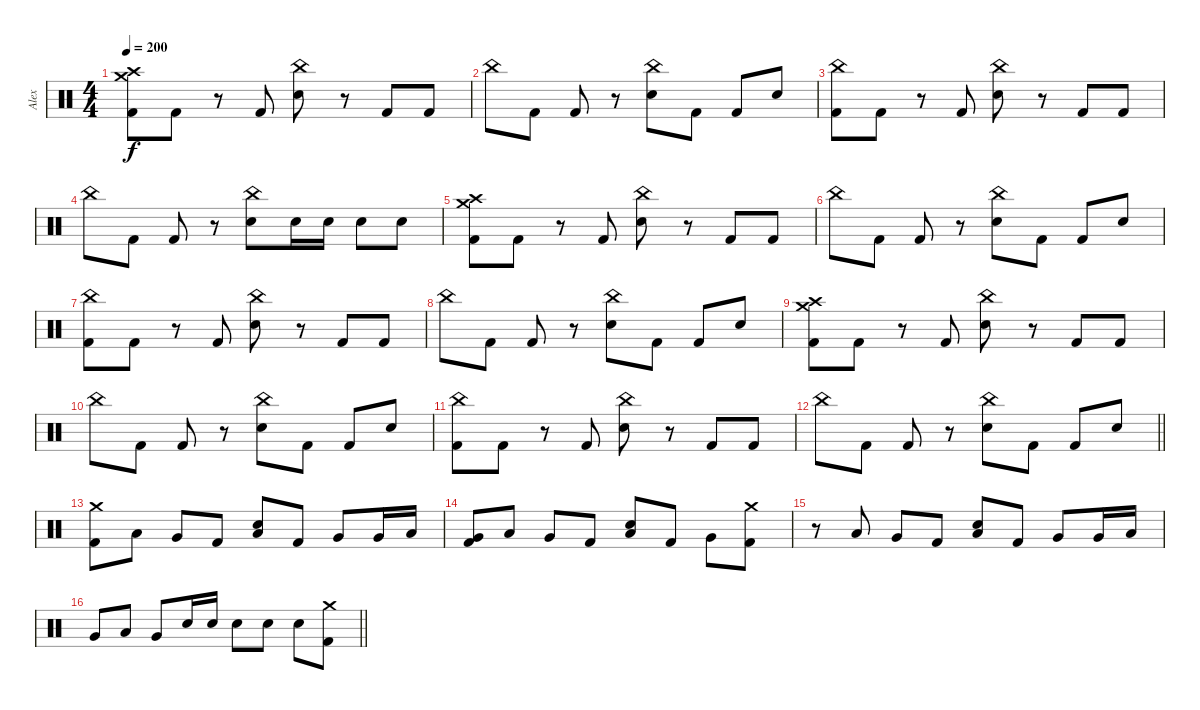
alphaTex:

\track ("Alex" "Alex") {instrument percussion}
\staff {score}
\articulation defaults
\ts (4 4)
\tempo 200
\clef neutral
\ks c
("Crash medium (hit)" "Crash high (hit)" "Kick (hit) 2").8{dy f} "Kick (hit) 2".8 r.8 "Kick (hit) 2".8 ("China (hit)" "Electric Snare (hit)").8 r.8 "Kick (hit) 2".8 "Kick (hit) 2".8 |
"China (hit)".8 "Kick (hit) 2".8 "Kick (hit) 2".8 r.8 ("China (hit)" "Electric Snare (hit)").8 "Kick (hit) 2".8 "Kick (hit) 2".8 "Electric Snare (hit)".8 |
("China (hit)" "Kick (hit) 2").8 "Kick (hit) 2".8 r.8 "Kick (hit) 2".8 ("China (hit)" "Electric Snare (hit)").8 r.8 "Kick (hit) 2".8 "Kick (hit) 2".8 |
"China (hit)".8 "Kick (hit) 2".8 "Kick (hit) 2".8 r.8 ("China (hit)" "Electric Snare (hit)").8 "Electric Snare (hit)".16 "Electric Snare (hit)".16 "Electric Snare (hit)".8 "Electric Snare (hit)".8 |
("Crash medium (hit)" "Crash high (hit)" "Kick (hit) 2").8 "Kick (hit) 2".8 r.8 "Kick (hit) 2".8 ("China (hit)" "Electric Snare (hit)").8 r.8 "Kick (hit) 2".8 "Kick (hit) 2".8 |
"China (hit)".8 "Kick (hit) 2".8 "Kick (hit) 2".8 r.8 ("China (hit)" "Electric Snare (hit)").8 "Kick (hit) 2".8 "Kick (hit) 2".8 "Electric Snare (hit)".8 |
("China (hit)" "Kick (hit) 2").8 "Kick (hit) 2".8 r.8 "Kick (hit) 2".8 ("China (hit)" "Electric Snare (hit)").8 r.8 "Kick (hit) 2".8 "Kick (hit) 2".8 |
"China (hit)".8 "Kick (hit) 2".8 "Kick (hit) 2".8 r.8 ("China (hit)" "Electric Snare (hit)").8 "Kick (hit) 2".8 "Kick (hit) 2".8 "Electric Snare (hit)".8 |
("Crash medium (hit)" "Crash high (hit)" "Kick (hit) 2").8 "Kick (hit) 2".8 r.8 "Kick (hit) 2".8 ("China (hit)" "Electric Snare (hit)").8 r.8 "Kick (hit) 2".8 "Kick (hit) 2".8 |
"China (hit)".8 "Kick (hit) 2".8 "Kick (hit) 2".8 r.8 ("China (hit)" "Electric Snare (hit)").8 "Kick (hit) 2".8 "Kick (hit) 2".8 "Electric Snare (hit)".8 |
("China (hit)" "Kick (hit) 2").8 "Kick (hit) 2".8 r.8 "Kick (hit) 2".8 ("China (hit)" "Electric Snare (hit)").8 r.8 "Kick (hit) 2".8 "Kick (hit) 2".8 |
\barLineRight lightlight "China (hit)".8 "Kick (hit) 2".8 "Kick (hit) 2".8
r.8 ("China (hit)" "Electric Snare (hit)").8 "Kick (hit) 2".8 "Kick (hit) 2".8 "Electric Snare (hit)".8 |
\section ("" "")
("Crash medium (hit)" "Kick (hit) 2").8 "Low Tom (hit)".8 "Very Low Tom (hit)".8 "Kick (hit) 2".8 ("Low Floor Tom (hit)" "Electric Snare (hit)").8 "Kick (hit) 2".8 "Very Low Tom (hit)".8 "Very Low Tom (hit)".16 "Low Tom (hit)".16 |
("Very Low Tom (hit)" "Kick (hit) 2").8 "Low Tom (hit)".8 "Very Low Tom (hit)".8 "Kick (hit) 2".8 ("Low Floor Tom (hit)" "Electric Snare (hit)").8 "Kick (hit) 2".8 "Very Low Tom (hit)".8 ("Crash medium (hit)" "Kick (hit) 2").8 |
r.8 "Low Tom (hit)".8 "Very Low Tom (hit)".8 "Kick (hit) 2".8 ("Low Floor Tom (hit)" "Electric Snare (hit)").8 "Kick (hit) 2".8 "Very Low Tom (hit)".8 "Very Low Tom (hit)".16 "Low Tom (hit)".16 |
\barLineRight lightlight "Very Low Tom (hit)".8 "Low Tom (hit)".8 "Very Low Tom (hit)".8 "Electric Snare (hit)".16 "Electric Snare (hit)".16 "Electric Snare (hit)".8 "Electric Snare (hit)".8 "Electric Snare (hit)".8
("Crash medium (hit)" "Kick (hit) 2").8
